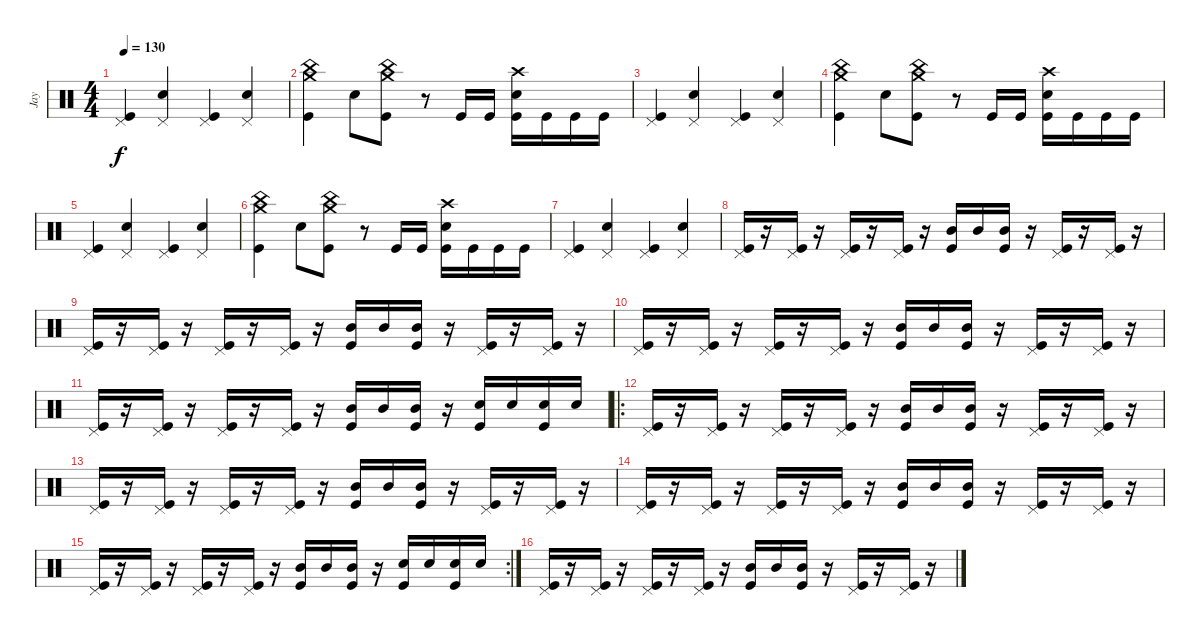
\track ("Jay" "Jay") {instrument percussion}
\staff {score}
\articulation defaults
\ts (4 4)
\tempo 130
\clef neutral
\ks c
("Pedal Hi-Hat (hit)" "Kick (hit)").4{dy f} ("Pedal Hi-Hat (hit)" "Snare (hit) 2").4 ("Pedal Hi-Hat (hit)" "Kick (hit)").4 ("Pedal Hi-Hat (hit)" "Snare (hit) 2").4 |
("Crash medium (hit)" "China (hit)" "Kick (hit)").4 "Snare (hit) 2".8 ("China (hit)" "Crash medium (hit)" "Kick (hit)").8 r.8 "Kick (hit)".16 "Kick (hit)".16 ("Crash high (hit)" "Snare (hit) 2" "Kick (hit)").16 "Kick (hit)".16 "Kick (hit)".16 "Kick (hit)".16 |
("Pedal Hi-Hat (hit)" "Kick (hit)").4 ("Pedal Hi-Hat (hit)" "Snare (hit) 2").4 ("Pedal Hi-Hat (hit)" "Kick (hit)").4 ("Pedal Hi-Hat (hit)" "Snare (hit) 2").4 |
("Crash medium (hit)" "China (hit)" "Kick (hit)").4 "Snare (hit) 2".8 ("China (hit)" "Crash medium (hit)" "Kick (hit)").8 r.8 "Kick (hit)".16 "Kick (hit)".16 ("Crash high (hit)" "Snare (hit) 2" "Kick (hit)").16 "Kick (hit)".16 "Kick (hit)".16 "Kick (hit)".16 |
("Pedal Hi-Hat (hit)" "Kick (hit)").4 ("Pedal Hi-Hat (hit)" "Snare (hit) 2").4 ("Pedal Hi-Hat (hit)" "Kick (hit)").4 ("Pedal Hi-Hat (hit)" "Snare (hit) 2").4 |
("Crash medium (hit)" "China (hit)" "Kick (hit)").4 "Snare (hit) 2".8 ("China (hit)" "Crash medium (hit)" "Kick (hit)").8 r.8 "Kick (hit)".16 "Kick (hit)".16 ("Crash high (hit)" "Snare (hit) 2" "Kick (hit)").16 "Kick (hit)".16 "Kick (hit)".16 "Kick (hit)".16 |
("Pedal Hi-Hat (hit)" "Kick (hit)").4 ("Pedal Hi-Hat (hit)" "Snare (hit) 2").4 ("Pedal Hi-Hat (hit)" "Kick (hit)").4 ("Pedal Hi-Hat (hit)" "Snare (hit) 2").4 |
("Pedal Hi-Hat (hit)" "Kick (hit)").16 r.16 ("Pedal Hi-Hat (hit)" "Kick (hit)").16 r.16 ("Pedal Hi-Hat (hit)" "Kick (hit)").16 r.16 ("Pedal Hi-Hat (hit)" "Kick (hit)").16 r.16 ("Mid Tom (hit)" "Kick (hit)").16 "Mid Tom (hit)".16 ("Mid Tom (hit)" "Kick (hit)").16 r.16 ("Pedal Hi-Hat (hit)" "Kick (hit)").16 r.16 ("Pedal Hi-Hat (hit)" "Kick (hit)").16 r.16 |
("Pedal Hi-Hat (hit)" "Kick (hit)").16 r.16 ("Pedal Hi-Hat (hit)" "Kick (hit)").16 r.16 ("Pedal Hi-Hat (hit)" "Kick (hit)").16 r.16 ("Pedal Hi-Hat (hit)" "Kick (hit)").16 r.16 ("Mid Tom (hit)" "Kick (hit)").16 "Mid Tom (hit)".16 ("Mid Tom (hit)" "Kick (hit)").16 r.16 ("Pedal Hi-Hat (hit)" "Kick (hit)").16 r.16 ("Pedal Hi-Hat (hit)" "Kick (hit)").16 r.16 |
("Pedal Hi-Hat (hit)" "Kick (hit)").16 r.16 ("Pedal Hi-Hat (hit)" "Kick (hit)").16 r.16 ("Pedal Hi-Hat (hit)" "Kick (hit)").16 r.16 ("Pedal Hi-Hat (hit)" "Kick (hit)").16 r.16 ("Mid Tom (hit)" "Kick (hit)").16 "Mid Tom (hit)".16 ("Mid Tom (hit)" "Kick (hit)").16 r.16 ("Pedal Hi-Hat (hit)" "Kick (hit)").16 r.16 ("Pedal Hi-Hat (hit)" "Kick (hit)").16 r.16 |
("Pedal Hi-Hat (hit)" "Kick (hit)").16 r.16 ("Pedal Hi-Hat (hit)" "Kick (hit)").16 r.16 ("Pedal Hi-Hat (hit)" "Kick (hit)").16 r.16 ("Pedal Hi-Hat (hit)" "Kick (hit)").16 r.16 ("Mid Tom (hit)" "Kick (hit)").16 "Mid Tom (hit)".16 ("Mid Tom (hit)" "Kick (hit)").16 r.16 ("Snare (hit) 2" "Kick (hit)").16 "Snare (hit) 2".16 ("Snare (hit) 2" "Kick (hit)").16 "Snare (hit) 2".16 |
\ro
("Pedal Hi-Hat (hit)" "Kick (hit)").16 r.16 ("Pedal Hi-Hat (hit)" "Kick (hit)").16 r.16 ("Pedal Hi-Hat (hit)" "Kick (hit)").16 r.16 ("Pedal Hi-Hat (hit)" "Kick (hit)").16 r.16 ("Mid Tom (hit)" "Kick (hit)").16 "Mid Tom (hit)".16 ("Mid Tom (hit)" "Kick (hit)").16 r.16 ("Pedal Hi-Hat (hit)" "Kick (hit)").16 r.16 ("Pedal Hi-Hat (hit)" "Kick (hit)").16 r.16 |
("Pedal Hi-Hat (hit)" "Kick (hit)").16 r.16 ("Pedal Hi-Hat (hit)" "Kick (hit)").16 r.16 ("Pedal Hi-Hat (hit)" "Kick (hit)").16 r.16 ("Pedal Hi-Hat (hit)" "Kick (hit)").16 r.16 ("Mid Tom (hit)" "Kick (hit)").16 "Mid Tom (hit)".16 ("Mid Tom (hit)" "Kick (hit)").16 r.16 ("Pedal Hi-Hat (hit)" "Kick (hit)").16 r.16 ("Pedal Hi-Hat (hit)" "Kick (hit)").16 r.16 |
("Pedal Hi-Hat (hit)" "Kick (hit)").16 r.16 ("Pedal Hi-Hat (hit)" "Kick (hit)").16 r.16 ("Pedal Hi-Hat (hit)" "Kick (hit)").16 r.16 ("Pedal Hi-Hat (hit)" "Kick (hit)").16 r.16 ("Mid Tom (hit)" "Kick (hit)").16 "Mid Tom (hit)".16 ("Mid Tom (hit)" "Kick (hit)").16 r.16 ("Pedal Hi-Hat (hit)" "Kick (hit)").16 r.16 ("Pedal Hi-Hat (hit)" "Kick (hit)").16 r.16 |
\rc 2
("Pedal Hi-Hat (hit)" "Kick (hit)").16 r.16 ("Pedal Hi-Hat (hit)" "Kick (hit)").16 r.16 ("Pedal Hi-Hat (hit)" "Kick (hit)").16 r.16 ("Pedal Hi-Hat (hit)" "Kick (hit)").16 r.16 ("Mid Tom (hit)" "Kick (hit)").16 "Mid Tom (hit)".16 ("Mid Tom (hit)" "Kick (hit)").16 r.16 ("Snare (hit) 2" "Kick (hit)").16 "Snare (hit) 2".16 ("Snare (hit) 2" "Kick (hit)").16 "Snare (hit) 2".16 |
("Pedal Hi-Hat (hit)" "Kick (hit)").16 r.16 ("Pedal Hi-Hat (hit)" "Kick (hit)").16 r.16 ("Pedal Hi-Hat (hit)" "Kick (hit)").16 r.16 ("Pedal Hi-Hat (hit)" "Kick (hit)").16 r.16 ("Mid Tom (hit)" "Kick (hit)").16 "Mid Tom (hit)".16 ("Mid Tom (hit)" "Kick (hit)").16 r.16 ("Pedal Hi-Hat (hit)" "Kick (hit)").16 r.16 ("Pedal Hi-Hat (hit)" "Kick (hit)").16 r.16
